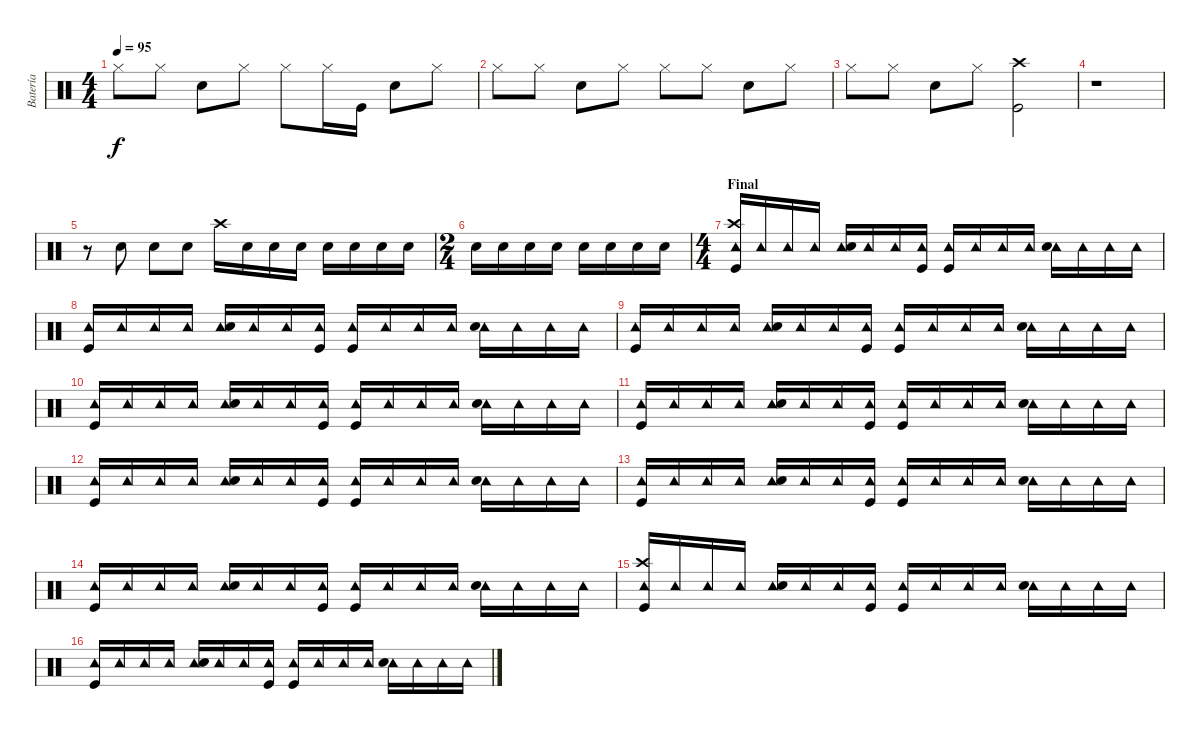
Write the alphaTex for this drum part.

\track ("Batería" "Batería") {instrument percussion}
\staff {score}
\articulation defaults
\ts (4 4)
\tempo 95
\clef neutral
\ks c "Hi-Hat (closed)".8{dy f} "Hi-Hat (closed)".8 "Snare (hit) 2".8 "Hi-Hat (closed)".8 "Hi-Hat (closed)".8 "Hi-Hat (closed)".16 "Kick (hit)".16 "Snare (hit) 2".8 "Hi-Hat (closed)".8
|
"Hi-Hat (closed)".8 "Hi-Hat (closed)".8 "Snare (hit) 2".8 "Hi-Hat (closed)".8 "Hi-Hat (closed)".8 "Hi-Hat (closed)".8 "Snare (hit) 2".8 "Hi-Hat (closed)".8 |
"Hi-Hat (closed)".8 "Hi-Hat (closed)".8 "Snare (hit) 2".8 "Hi-Hat (closed)".8 ("Kick (hit)" "Crash high (hit)").2 |
r.1 |
r.8 "Snare (hit) 2".8 "Snare (hit) 2".8 "Snare (hit) 2".8 "Crash high (hit)".16 "Snare (hit) 2".16 "Snare (hit) 2".16 "Snare (hit) 2".16 "Snare (hit) 2".16 "Snare (hit) 2".16 "Snare (hit) 2".16 "Snare (hit) 2".16 |
\ts (2 4)
"Snare (hit) 2".16 "Snare (hit) 2".16 "Snare (hit) 2".16 "Snare (hit) 2".16 "Snare (hit) 2".16 "Snare (hit) 2".16 "Snare (hit) 2".16 "Snare (hit) 2".16 |
\ts (4 4)
\section ("" "Final")
("Tambourine (hit)" "Kick (hit)" "Crash high (hit)").16 "Tambourine (hit)".16 "Tambourine (hit)".16 "Tambourine (hit)".16 ("Tambourine (hit)" "Snare (hit) 2").16 "Tambourine (hit)".16 "Tambourine (hit)".16 ("Tambourine (hit)" "Kick (hit)").16 ("Tambourine (hit)" "Kick (hit)").16 "Tambourine (hit)".16 "Tambourine (hit)".16 "Tambourine (hit)".16 ("Tambourine (hit)" "Snare (hit) 2").16 "Tambourine (hit)".16 "Tambourine (hit)".16 "Tambourine (hit)".16 |
("Tambourine (hit)" "Kick (hit)").16 "Tambourine (hit)".16 "Tambourine (hit)".16 "Tambourine (hit)".16 ("Tambourine (hit)" "Snare (hit) 2").16 "Tambourine (hit)".16 "Tambourine (hit)".16 ("Tambourine (hit)" "Kick (hit)").16 ("Tambourine (hit)" "Kick (hit)").16 "Tambourine (hit)".16 "Tambourine (hit)".16 "Tambourine (hit)".16 ("Tambourine (hit)" "Snare (hit) 2").16 "Tambourine (hit)".16 "Tambourine (hit)".16 "Tambourine (hit)".16 |
("Tambourine (hit)" "Kick (hit)").16 "Tambourine (hit)".16 "Tambourine (hit)".16 "Tambourine (hit)".16 ("Tambourine (hit)" "Snare (hit) 2").16 "Tambourine (hit)".16 "Tambourine (hit)".16 ("Tambourine (hit)" "Kick (hit)").16 ("Tambourine (hit)" "Kick (hit)").16 "Tambourine (hit)".16 "Tambourine (hit)".16 "Tambourine (hit)".16 ("Tambourine (hit)" "Snare (hit) 2").16 "Tambourine (hit)".16 "Tambourine (hit)".16 "Tambourine (hit)".16 |
("Tambourine (hit)" "Kick (hit)").16 "Tambourine (hit)".16 "Tambourine (hit)".16 "Tambourine (hit)".16 ("Tambourine (hit)" "Snare (hit) 2").16 "Tambourine (hit)".16 "Tambourine (hit)".16 ("Tambourine (hit)" "Kick (hit)").16 ("Tambourine (hit)" "Kick (hit)").16 "Tambourine (hit)".16 "Tambourine (hit)".16 "Tambourine (hit)".16 ("Tambourine (hit)" "Snare (hit) 2").16 "Tambourine (hit)".16 "Tambourine (hit)".16 "Tambourine (hit)".16 |
("Tambourine (hit)" "Kick (hit)").16 "Tambourine (hit)".16 "Tambourine (hit)".16 "Tambourine (hit)".16 ("Tambourine (hit)" "Snare (hit) 2").16 "Tambourine (hit)".16 "Tambourine (hit)".16 ("Tambourine (hit)" "Kick (hit)").16 ("Tambourine (hit)" "Kick (hit)").16 "Tambourine (hit)".16 "Tambourine (hit)".16 "Tambourine (hit)".16 ("Tambourine (hit)" "Snare (hit) 2").16 "Tambourine (hit)".16 "Tambourine (hit)".16 "Tambourine (hit)".16 |
("Tambourine (hit)" "Kick (hit)").16 "Tambourine (hit)".16 "Tambourine (hit)".16 "Tambourine (hit)".16 ("Tambourine (hit)" "Snare (hit) 2").16 "Tambourine (hit)".16 "Tambourine (hit)".16 ("Tambourine (hit)" "Kick (hit)").16 ("Tambourine (hit)" "Kick (hit)").16 "Tambourine (hit)".16 "Tambourine (hit)".16 "Tambourine (hit)".16 ("Tambourine (hit)" "Snare (hit) 2").16 "Tambourine (hit)".16 "Tambourine (hit)".16 "Tambourine (hit)".16 |
("Tambourine (hit)" "Kick (hit)").16 "Tambourine (hit)".16 "Tambourine (hit)".16 "Tambourine (hit)".16 ("Tambourine (hit)" "Snare (hit) 2").16 "Tambourine (hit)".16 "Tambourine (hit)".16 ("Tambourine (hit)" "Kick (hit)").16 ("Tambourine (hit)" "Kick (hit)").16 "Tambourine (hit)".16 "Tambourine (hit)".16 "Tambourine (hit)".16 ("Tambourine (hit)" "Snare (hit) 2").16 "Tambourine (hit)".16 "Tambourine (hit)".16 "Tambourine (hit)".16 |
("Tambourine (hit)" "Kick (hit)").16 "Tambourine (hit)".16 "Tambourine (hit)".16 "Tambourine (hit)".16 ("Tambourine (hit)" "Snare (hit) 2").16 "Tambourine (hit)".16 "Tambourine (hit)".16 ("Tambourine (hit)" "Kick (hit)").16 ("Tambourine (hit)" "Kick (hit)").16 "Tambourine (hit)".16 "Tambourine (hit)".16 "Tambourine (hit)".16 ("Tambourine (hit)" "Snare (hit) 2").16 "Tambourine (hit)".16 "Tambourine (hit)".16 "Tambourine (hit)".16 |
("Tambourine (hit)" "Kick (hit)" "Crash high (hit)").16 "Tambourine (hit)".16 "Tambourine (hit)".16 "Tambourine (hit)".16 ("Tambourine (hit)" "Snare (hit) 2").16 "Tambourine (hit)".16 "Tambourine (hit)".16 ("Tambourine (hit)" "Kick (hit)").16 ("Tambourine (hit)" "Kick (hit)").16 "Tambourine (hit)".16 "Tambourine (hit)".16 "Tambourine (hit)".16 ("Tambourine (hit)" "Snare (hit) 2").16 "Tambourine (hit)".16 "Tambourine (hit)".16 "Tambourine (hit)".16 |
("Tambourine (hit)" "Kick (hit)").16 "Tambourine (hit)".16 "Tambourine (hit)".16 "Tambourine (hit)".16 ("Tambourine (hit)" "Snare (hit) 2").16 "Tambourine (hit)".16 "Tambourine (hit)".16 ("Tambourine (hit)" "Kick (hit)").16 ("Tambourine (hit)" "Kick (hit)").16 "Tambourine (hit)".16 "Tambourine (hit)".16 "Tambourine (hit)".16 ("Tambourine (hit)" "Snare (hit) 2").16 "Tambourine (hit)".16 "Tambourine (hit)".16 "Tambourine (hit)".16
